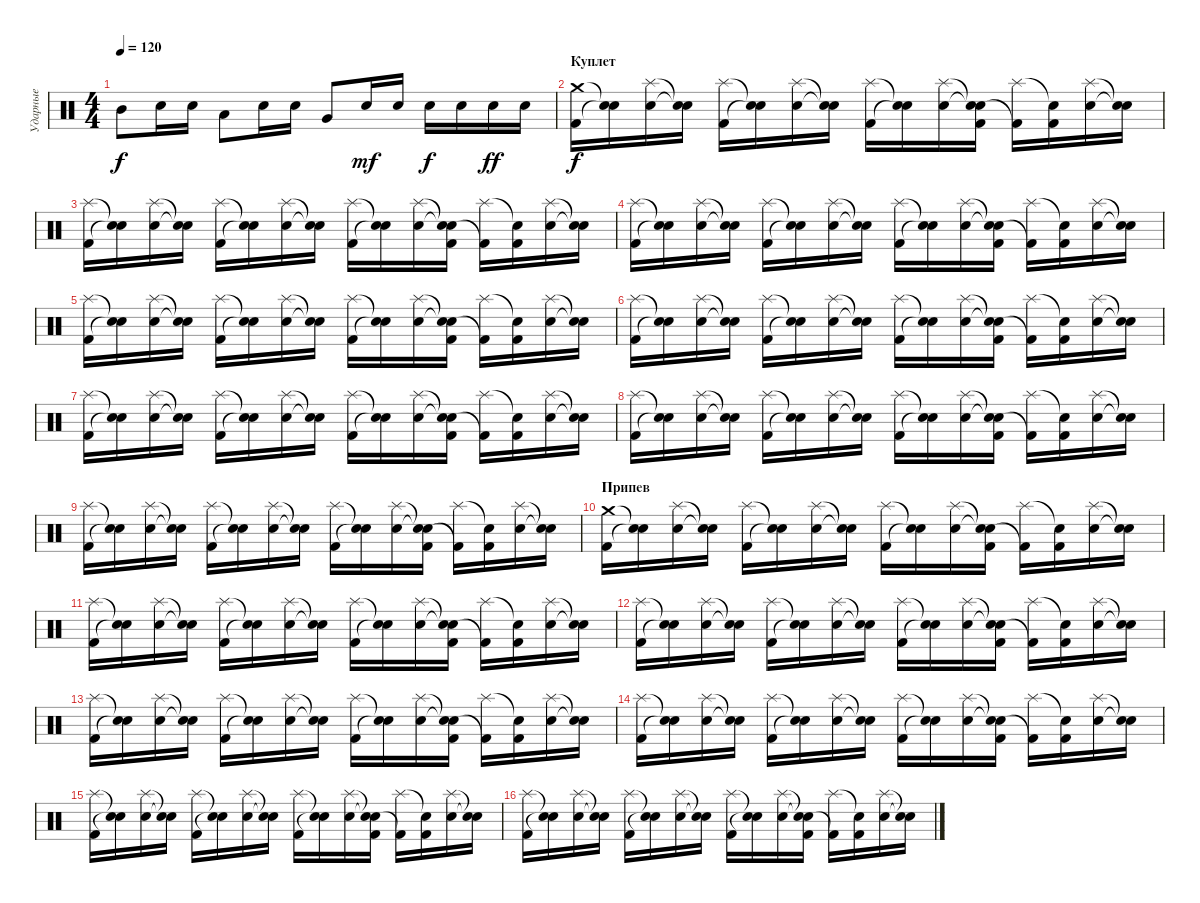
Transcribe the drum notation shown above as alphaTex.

\track ("Ударные" "Ударные") {instrument percussion}
\staff {score}
\articulation defaults
\ts (4 4)
\tempo 120
\clef neutral
\ks c "Mid Tom (hit)".8{dy f} "Electric Snare (hit)".16 "Electric Snare (hit)".16 "Low Tom (hit)".8 "Electric Snare (hit)".16 "Electric Snare (hit)".16 "Very Low Tom (hit)".8 "Electric Snare (hit)".16{dy mf} "Electric Snare (hit)".16 "Electric Snare (hit)".16{dy f} "Electric Snare (hit)".16 "Electric Snare (hit)".16{dy ff} "Electric Snare (hit)".16
|
\section ("" "Куплет")
("Crash medium (hit)" "Kick (hit) 2").16{dy f} ("Snare (hit)"{t} "Snare (hit)"{t}).16 ("Splash (hit)" "Electric Snare (hit)").16 ("Snare (hit)"{t} "Snare (hit)"{t}).16 ("Splash (hit)" "Kick (hit) 2").16 ("Snare (hit)"{t} "Snare (hit)"{t}).16 ("Splash (hit)" "Electric Snare (hit)").16 ("Snare (hit)"{t} "Snare (hit)"{t}).16 ("Splash (hit)" "Kick (hit) 2").16 ("Snare (hit)"{t} "Snare (hit)"{t}).16 ("Splash (hit)" "Electric Snare (hit)").16 ("Snare (hit)"{t} "Snare (hit)"{t} "Kick (hit) 2").16 ("Splash (hit)" "Kick (hit) 2"{t}).16 ("Snare (hit)"{t} "Kick (hit) 2").16 ("Splash (hit)" "Electric Snare (hit)").16 ("Snare (hit)"{t} "Snare (hit)"{t}).16 |
("Splash (hit)" "Kick (hit) 2").16 ("Snare (hit)"{t} "Snare (hit)"{t}).16 ("Splash (hit)" "Electric Snare (hit)").16 ("Snare (hit)"{t} "Snare (hit)"{t}).16 ("Splash (hit)" "Kick (hit) 2").16 ("Snare (hit)"{t} "Snare (hit)"{t}).16 ("Splash (hit)" "Electric Snare (hit)").16 ("Snare (hit)"{t} "Snare (hit)"{t}).16 ("Splash (hit)" "Kick (hit) 2").16 ("Snare (hit)"{t} "Snare (hit)"{t}).16 ("Splash (hit)" "Electric Snare (hit)").16 ("Snare (hit)"{t} "Snare (hit)"{t} "Kick (hit) 2").16 ("Splash (hit)" "Kick (hit) 2"{t}).16 ("Snare (hit)"{t} "Kick (hit) 2").16 ("Splash (hit)" "Electric Snare (hit)").16 ("Snare (hit)"{t} "Snare (hit)"{t}).16 |
("Splash (hit)" "Kick (hit) 2").16 ("Snare (hit)"{t} "Snare (hit)"{t}).16 ("Splash (hit)" "Electric Snare (hit)").16 ("Snare (hit)"{t} "Snare (hit)"{t}).16 ("Splash (hit)" "Kick (hit) 2").16 ("Snare (hit)"{t} "Snare (hit)"{t}).16 ("Splash (hit)" "Electric Snare (hit)").16 ("Snare (hit)"{t} "Snare (hit)"{t}).16 ("Splash (hit)" "Kick (hit) 2").16 ("Snare (hit)"{t} "Snare (hit)"{t}).16 ("Splash (hit)" "Electric Snare (hit)").16 ("Snare (hit)"{t} "Snare (hit)"{t} "Kick (hit) 2").16 ("Splash (hit)" "Kick (hit) 2"{t}).16 ("Snare (hit)"{t} "Kick (hit) 2").16 ("Splash (hit)" "Electric Snare (hit)").16 ("Snare (hit)"{t} "Snare (hit)"{t}).16 |
("Splash (hit)" "Kick (hit) 2").16 ("Snare (hit)"{t} "Snare (hit)"{t}).16 ("Splash (hit)" "Electric Snare (hit)").16 ("Snare (hit)"{t} "Snare (hit)"{t}).16 ("Splash (hit)" "Kick (hit) 2").16 ("Snare (hit)"{t} "Snare (hit)"{t}).16 ("Splash (hit)" "Electric Snare (hit)").16 ("Snare (hit)"{t} "Snare (hit)"{t}).16 ("Splash (hit)" "Kick (hit) 2").16 ("Snare (hit)"{t} "Snare (hit)"{t}).16 ("Splash (hit)" "Electric Snare (hit)").16 ("Snare (hit)"{t} "Snare (hit)"{t} "Kick (hit) 2").16 ("Splash (hit)" "Kick (hit) 2"{t}).16 ("Snare (hit)"{t} "Kick (hit) 2").16 ("Splash (hit)" "Electric Snare (hit)").16 ("Snare (hit)"{t} "Snare (hit)"{t}).16 |
("Splash (hit)" "Kick (hit) 2").16 ("Snare (hit)"{t} "Snare (hit)"{t}).16 ("Splash (hit)" "Electric Snare (hit)").16 ("Snare (hit)"{t} "Snare (hit)"{t}).16 ("Splash (hit)" "Kick (hit) 2").16 ("Snare (hit)"{t} "Snare (hit)"{t}).16 ("Splash (hit)" "Electric Snare (hit)").16 ("Snare (hit)"{t} "Snare (hit)"{t}).16 ("Splash (hit)" "Kick (hit) 2").16 ("Snare (hit)"{t} "Snare (hit)"{t}).16 ("Splash (hit)" "Electric Snare (hit)").16 ("Snare (hit)"{t} "Snare (hit)"{t} "Kick (hit) 2").16 ("Splash (hit)" "Kick (hit) 2"{t}).16 ("Snare (hit)"{t} "Kick (hit) 2").16 ("Splash (hit)" "Electric Snare (hit)").16 ("Snare (hit)"{t} "Snare (hit)"{t}).16 |
("Splash (hit)" "Kick (hit) 2").16 ("Snare (hit)"{t} "Snare (hit)"{t}).16 ("Splash (hit)" "Electric Snare (hit)").16 ("Snare (hit)"{t} "Snare (hit)"{t}).16 ("Splash (hit)" "Kick (hit) 2").16 ("Snare (hit)"{t} "Snare (hit)"{t}).16 ("Splash (hit)" "Electric Snare (hit)").16 ("Snare (hit)"{t} "Snare (hit)"{t}).16 ("Splash (hit)" "Kick (hit) 2").16 ("Snare (hit)"{t} "Snare (hit)"{t}).16 ("Splash (hit)" "Electric Snare (hit)").16 ("Snare (hit)"{t} "Snare (hit)"{t} "Kick (hit) 2").16 ("Splash (hit)" "Kick (hit) 2"{t}).16 ("Snare (hit)"{t} "Kick (hit) 2").16 ("Splash (hit)" "Electric Snare (hit)").16 ("Snare (hit)"{t} "Snare (hit)"{t}).16 |
("Splash (hit)" "Kick (hit) 2").16 ("Snare (hit)"{t} "Snare (hit)"{t}).16 ("Splash (hit)" "Electric Snare (hit)").16 ("Snare (hit)"{t} "Snare (hit)"{t}).16 ("Splash (hit)" "Kick (hit) 2").16 ("Snare (hit)"{t} "Snare (hit)"{t}).16 ("Splash (hit)" "Electric Snare (hit)").16 ("Snare (hit)"{t} "Snare (hit)"{t}).16 ("Splash (hit)" "Kick (hit) 2").16 ("Snare (hit)"{t} "Snare (hit)"{t}).16 ("Splash (hit)" "Electric Snare (hit)").16 ("Snare (hit)"{t} "Snare (hit)"{t} "Kick (hit) 2").16 ("Splash (hit)" "Kick (hit) 2"{t}).16 ("Snare (hit)"{t} "Kick (hit) 2").16 ("Splash (hit)" "Electric Snare (hit)").16 ("Snare (hit)"{t} "Snare (hit)"{t}).16 |
("Splash (hit)" "Kick (hit) 2").16 ("Snare (hit)"{t} "Snare (hit)"{t}).16 ("Splash (hit)" "Electric Snare (hit)").16 ("Snare (hit)"{t} "Snare (hit)"{t}).16 ("Splash (hit)" "Kick (hit) 2").16 ("Snare (hit)"{t} "Snare (hit)"{t}).16 ("Splash (hit)" "Electric Snare (hit)").16 ("Snare (hit)"{t} "Snare (hit)"{t}).16 ("Splash (hit)" "Kick (hit) 2").16 ("Snare (hit)"{t} "Snare (hit)"{t}).16 ("Splash (hit)" "Electric Snare (hit)").16 ("Snare (hit)"{t} "Snare (hit)"{t} "Kick (hit) 2").16 ("Splash (hit)" "Kick (hit) 2"{t}).16 ("Snare (hit)"{t} "Kick (hit) 2").16 ("Splash (hit)" "Electric Snare (hit)").16 ("Snare (hit)"{t} "Snare (hit)"{t}).16 |
\section ("" "Припев")
("Crash medium (hit)" "Kick (hit) 2").16 ("Snare (hit)"{t} "Snare (hit)"{t}).16 ("Splash (hit)" "Electric Snare (hit)").16 ("Snare (hit)"{t} "Snare (hit)"{t}).16 ("Splash (hit)" "Kick (hit) 2").16 ("Snare (hit)"{t} "Snare (hit)"{t}).16 ("Splash (hit)" "Electric Snare (hit)").16 ("Snare (hit)"{t} "Snare (hit)"{t}).16 ("Splash (hit)" "Kick (hit) 2").16 ("Snare (hit)"{t} "Snare (hit)"{t}).16 ("Splash (hit)" "Electric Snare (hit)").16 ("Snare (hit)"{t} "Snare (hit)"{t} "Kick (hit) 2").16 ("Splash (hit)" "Kick (hit) 2"{t}).16 ("Snare (hit)"{t} "Kick (hit) 2").16 ("Splash (hit)" "Electric Snare (hit)").16 ("Snare (hit)"{t} "Snare (hit)"{t}).16 |
("Splash (hit)" "Kick (hit) 2").16 ("Snare (hit)"{t} "Snare (hit)"{t}).16 ("Splash (hit)" "Electric Snare (hit)").16 ("Snare (hit)"{t} "Snare (hit)"{t}).16 ("Splash (hit)" "Kick (hit) 2").16 ("Snare (hit)"{t} "Snare (hit)"{t}).16 ("Splash (hit)" "Electric Snare (hit)").16 ("Snare (hit)"{t} "Snare (hit)"{t}).16 ("Splash (hit)" "Kick (hit) 2").16 ("Snare (hit)"{t} "Snare (hit)"{t}).16 ("Splash (hit)" "Electric Snare (hit)").16 ("Snare (hit)"{t} "Snare (hit)"{t} "Kick (hit) 2").16 ("Splash (hit)" "Kick (hit) 2"{t}).16 ("Snare (hit)"{t} "Kick (hit) 2").16 ("Splash (hit)" "Electric Snare (hit)").16 ("Snare (hit)"{t} "Snare (hit)"{t}).16 |
("Splash (hit)" "Kick (hit) 2").16 ("Snare (hit)"{t} "Snare (hit)"{t}).16 ("Splash (hit)" "Electric Snare (hit)").16 ("Snare (hit)"{t} "Snare (hit)"{t}).16 ("Splash (hit)" "Kick (hit) 2").16 ("Snare (hit)"{t} "Snare (hit)"{t}).16 ("Splash (hit)" "Electric Snare (hit)").16 ("Snare (hit)"{t} "Snare (hit)"{t}).16 ("Splash (hit)" "Kick (hit) 2").16 ("Snare (hit)"{t} "Snare (hit)"{t}).16 ("Splash (hit)" "Electric Snare (hit)").16 ("Snare (hit)"{t} "Snare (hit)"{t} "Kick (hit) 2").16 ("Splash (hit)" "Kick (hit) 2"{t}).16 ("Snare (hit)"{t} "Kick (hit) 2").16 ("Splash (hit)" "Electric Snare (hit)").16 ("Snare (hit)"{t} "Snare (hit)"{t}).16 |
("Splash (hit)" "Kick (hit) 2").16 ("Snare (hit)"{t} "Snare (hit)"{t}).16 ("Splash (hit)" "Electric Snare (hit)").16 ("Snare (hit)"{t} "Snare (hit)"{t}).16 ("Splash (hit)" "Kick (hit) 2").16 ("Snare (hit)"{t} "Snare (hit)"{t}).16 ("Splash (hit)" "Electric Snare (hit)").16 ("Snare (hit)"{t} "Snare (hit)"{t}).16 ("Splash (hit)" "Kick (hit) 2").16 ("Snare (hit)"{t} "Snare (hit)"{t}).16 ("Splash (hit)" "Electric Snare (hit)").16 ("Snare (hit)"{t} "Snare (hit)"{t} "Kick (hit) 2").16 ("Splash (hit)" "Kick (hit) 2"{t}).16 ("Snare (hit)"{t} "Kick (hit) 2").16 ("Splash (hit)" "Electric Snare (hit)").16 ("Snare (hit)"{t} "Snare (hit)"{t}).16 |
("Splash (hit)" "Kick (hit) 2").16 ("Snare (hit)"{t} "Snare (hit)"{t}).16 ("Splash (hit)" "Electric Snare (hit)").16 ("Snare (hit)"{t} "Snare (hit)"{t}).16 ("Splash (hit)" "Kick (hit) 2").16 ("Snare (hit)"{t} "Snare (hit)"{t}).16 ("Splash (hit)" "Electric Snare (hit)").16 ("Snare (hit)"{t} "Snare (hit)"{t}).16 ("Splash (hit)" "Kick (hit) 2").16 ("Snare (hit)"{t} "Snare (hit)"{t}).16 ("Splash (hit)" "Electric Snare (hit)").16 ("Snare (hit)"{t} "Snare (hit)"{t} "Kick (hit) 2").16 ("Splash (hit)" "Kick (hit) 2"{t}).16 ("Snare (hit)"{t} "Kick (hit) 2").16 ("Splash (hit)" "Electric Snare (hit)").16 ("Snare (hit)"{t} "Snare (hit)"{t}).16 |
("Splash (hit)" "Kick (hit) 2").16 ("Snare (hit)"{t} "Snare (hit)"{t}).16 ("Splash (hit)" "Electric Snare (hit)").16 ("Snare (hit)"{t} "Snare (hit)"{t}).16 ("Splash (hit)" "Kick (hit) 2").16 ("Snare (hit)"{t} "Snare (hit)"{t}).16 ("Splash (hit)" "Electric Snare (hit)").16 ("Snare (hit)"{t} "Snare (hit)"{t}).16 ("Splash (hit)" "Kick (hit) 2").16 ("Snare (hit)"{t} "Snare (hit)"{t}).16 ("Splash (hit)" "Electric Snare (hit)").16 ("Snare (hit)"{t} "Snare (hit)"{t} "Kick (hit) 2").16 ("Splash (hit)" "Kick (hit) 2"{t}).16 ("Snare (hit)"{t} "Kick (hit) 2").16 ("Splash (hit)" "Electric Snare (hit)").16 ("Snare (hit)"{t} "Snare (hit)"{t}).16 |
("Splash (hit)" "Kick (hit) 2").16 ("Snare (hit)"{t} "Snare (hit)"{t}).16 ("Splash (hit)" "Electric Snare (hit)").16 ("Snare (hit)"{t} "Snare (hit)"{t}).16 ("Splash (hit)" "Kick (hit) 2").16 ("Snare (hit)"{t} "Snare (hit)"{t}).16 ("Splash (hit)" "Electric Snare (hit)").16 ("Snare (hit)"{t} "Snare (hit)"{t}).16 ("Splash (hit)" "Kick (hit) 2").16 ("Snare (hit)"{t} "Snare (hit)"{t}).16 ("Splash (hit)" "Electric Snare (hit)").16 ("Snare (hit)"{t} "Snare (hit)"{t} "Kick (hit) 2").16 ("Splash (hit)" "Kick (hit) 2"{t}).16 ("Snare (hit)"{t} "Kick (hit) 2").16 ("Splash (hit)" "Electric Snare (hit)").16 ("Snare (hit)"{t} "Snare (hit)"{t}).16
